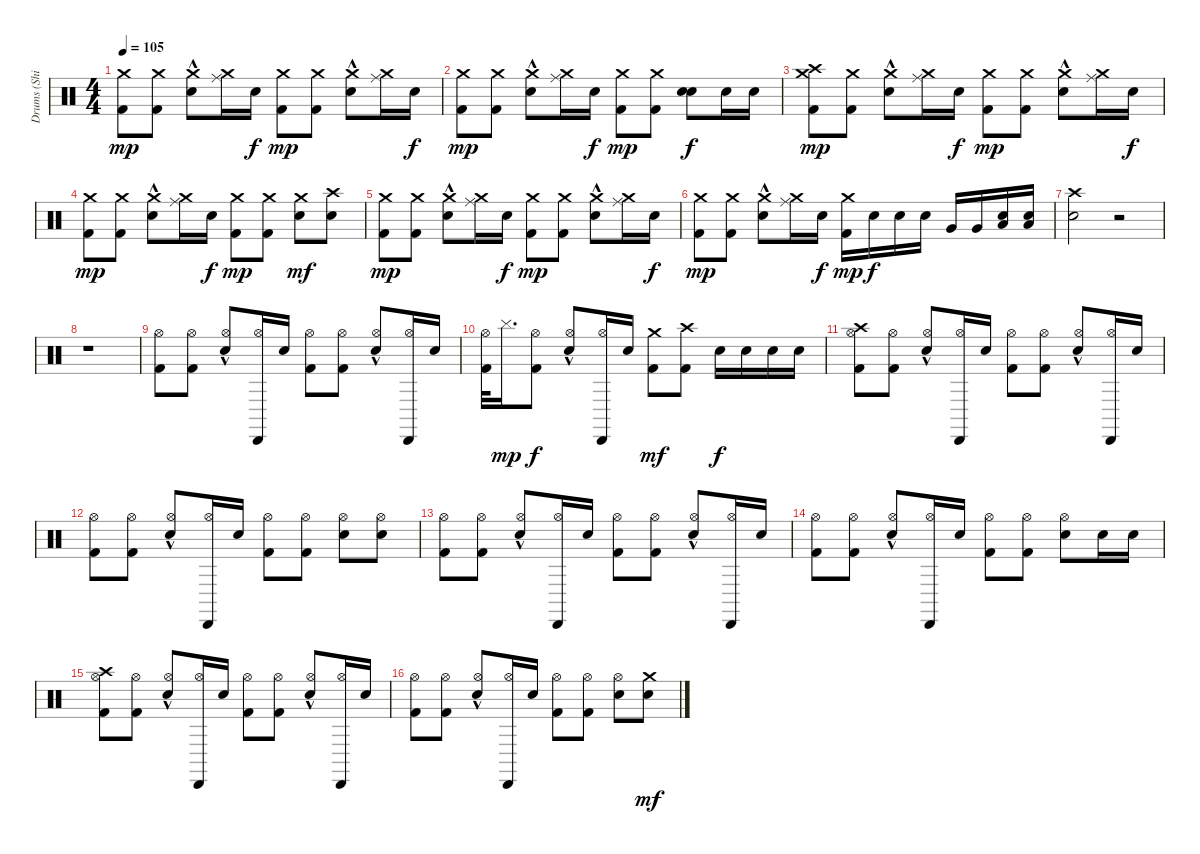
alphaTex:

\track ("Drums (Shinya)" "Drums (Shi") {instrument percussion}
\staff {score}
\articulation defaults
\ts (4 4)
\tempo 105
\clef neutral
\ks c
("Crash medium (hit)" "Kick (hit) 2").8{dy mp} ("Crash medium (hit)" "Kick (hit) 2").8 ("Crash medium (hit)" "Electric Snare (hit)"{hac}).8 ("Crash medium (hit)" "Ride (middle)").16 "Electric Snare (hit)".16{dy f} ("Crash medium (hit)" "Kick (hit) 2").8{dy mp} ("Crash medium (hit)" "Kick (hit) 2").8 ("Crash medium (hit)" "Electric Snare (hit)"{hac}).8 ("Ride (middle)" "Crash medium (hit)").16 "Electric Snare (hit)".16{dy f} |
("Kick (hit) 2" "Crash medium (hit)").8{dy mp} ("Kick (hit) 2" "Crash medium (hit)").8 ("Electric Snare (hit)"{hac} "Crash medium (hit)").8 ("Crash medium (hit)" "Ride (middle)").16 "Electric Snare (hit)".16{dy f} ("Kick (hit) 2" "Crash medium (hit)").8{dy mp} ("Kick (hit) 2" "Crash medium (hit)").8 ("Electric Snare (hit)" "Electric Snare (hit)").8{dy f} "Electric Snare (hit)".16 "Electric Snare (hit)".16 |
("Crash medium (hit)" "Crash high (hit)" "Kick (hit) 2").8{dy mp} ("Crash medium (hit)" "Kick (hit) 2").8 ("Crash medium (hit)" "Electric Snare (hit)"{hac}).8 ("Crash medium (hit)" "Ride (middle)").16 "Electric Snare (hit)".16{dy f} ("Crash medium (hit)" "Kick (hit) 2").8{dy mp} ("Crash medium (hit)" "Kick (hit) 2").8 ("Crash medium (hit)" "Electric Snare (hit)"{hac}).8 ("Ride (middle)" "Crash medium (hit)").16 "Electric Snare (hit)".16{dy f} |
("Kick (hit) 2" "Crash medium (hit)").8{dy mp} ("Kick (hit) 2" "Crash medium (hit)").8 ("Electric Snare (hit)"{hac} "Crash medium (hit)").8 ("Crash medium (hit)" "Ride (middle)").16 "Electric Snare (hit)".16{dy f} ("Kick (hit) 2" "Crash medium (hit)").8{dy mp} ("Kick (hit) 2" "Crash medium (hit)").8 ("Electric Snare (hit)" "Crash medium (hit)").8{dy mf} ("Electric Snare (hit)" "Crash high (hit)").8 |
("Crash medium (hit)" "Kick (hit) 2").8{dy mp} ("Crash medium (hit)" "Kick (hit) 2").8 ("Crash medium (hit)" "Electric Snare (hit)"{hac}).8 ("Crash medium (hit)" "Ride (middle)").16 "Electric Snare (hit)".16{dy f} ("Crash medium (hit)" "Kick (hit) 2").8{dy mp} ("Crash medium (hit)" "Kick (hit) 2").8 ("Crash medium (hit)" "Electric Snare (hit)"{hac}).8 ("Ride (middle)" "Crash medium (hit)").16 "Electric Snare (hit)".16{dy f} |
("Kick (hit) 2" "Crash medium (hit)").8{dy mp} ("Kick (hit) 2" "Crash medium (hit)").8 ("Electric Snare (hit)"{hac} "Crash medium (hit)").8 ("Crash medium (hit)" "Ride (middle)").16 "Electric Snare (hit)".16{dy f} ("Kick (hit) 2" "Crash medium (hit)").16{dy mp} "Electric Snare (hit)".16{dy f} "Electric Snare (hit)".16 "Electric Snare (hit)".16 "Very Low Tom (hit)".16 "Very Low Tom (hit)".16 ("Snare (hit) 2" "Low Floor Tom (hit)").16 ("Snare (hit) 2" "Low Floor Tom (hit)").16 |
("Crash high (hit)" "Electric Snare (hit)").2 r.2 |
r.1 |
("Kick (hit) 2" "Hi-Hat (open)").8 ("Hi-Hat (open)" "Kick (hit) 2").8 ("Electric Snare (hit)"{hac} "Hi-Hat (open)").8 ("Hi-Hat (open)" "Cabasa (hit)").16 "Electric Snare (hit)".16 ("Kick (hit) 2" "Hi-Hat (open)").8 ("Kick (hit) 2" "Hi-Hat (open)").8 ("Electric Snare (hit)"{hac} "Hi-Hat (open)").8 ("Hi-Hat (open)" "Cabasa (hit)").16 "Electric Snare (hit)".16 |
("Kick (hit) 2" "Hi-Hat (open)").32 "Cymbal (hit)".16{d dy mp} ("Hi-Hat (open)" "Kick (hit) 2").8{dy f} ("Hi-Hat (open)" "Electric Snare (hit)"{hac}).8 ("Cabasa (hit)" "Hi-Hat (open)").16 "Electric Snare (hit)".16 ("Crash medium (hit)" "Kick (hit) 2").8{dy mf} ("Crash high (hit)" "Kick (hit) 2").8 "Electric Snare (hit)".16{dy f} "Electric Snare (hit)".16 "Electric Snare (hit)".16 "Electric Snare (hit)".16 |
("Hi-Hat (open)" "Crash high (hit)" "Kick (hit) 2").8 ("Hi-Hat (open)" "Kick (hit) 2").8 ("Hi-Hat (open)" "Electric Snare (hit)"{hac}).8 ("Hi-Hat (open)" "Cabasa (hit)").16 "Electric Snare (hit)".16 ("Kick (hit) 2" "Hi-Hat (open)").8 ("Hi-Hat (open)" "Kick (hit) 2").8 ("Electric Snare (hit)"{hac} "Hi-Hat (open)").8 ("Hi-Hat (open)" "Cabasa (hit)").16 "Electric Snare (hit)".16 |
("Hi-Hat (open)" "Kick (hit) 2").8 ("Hi-Hat (open)" "Kick (hit) 2").8 ("Electric Snare (hit)"{hac} "Hi-Hat (open)").8 ("Hi-Hat (open)" "Cabasa (hit)").16 "Electric Snare (hit)".16 ("Hi-Hat (open)" "Kick (hit) 2").8 ("Hi-Hat (open)" "Kick (hit) 2").8 ("Electric Snare (hit)" "Hi-Hat (open)").8 ("Hi-Hat (open)" "Electric Snare (hit)").8 |
("Hi-Hat (open)" "Kick (hit) 2").8 ("Hi-Hat (open)" "Kick (hit) 2").8 ("Hi-Hat (open)" "Electric Snare (hit)"{hac}).8 ("Hi-Hat (open)" "Cabasa (hit)").16 "Electric Snare (hit)".16 ("Kick (hit) 2" "Hi-Hat (open)").8 ("Hi-Hat (open)" "Kick (hit) 2").8 ("Electric Snare (hit)"{hac} "Hi-Hat (open)").8 ("Hi-Hat (open)" "Cabasa (hit)").16 "Electric Snare (hit)".16 |
("Hi-Hat (open)" "Kick (hit) 2").8 ("Hi-Hat (open)" "Kick (hit) 2").8 ("Electric Snare (hit)"{hac} "Hi-Hat (open)").8 ("Hi-Hat (open)" "Cabasa (hit)").16 "Electric Snare (hit)".16 ("Hi-Hat (open)" "Kick (hit) 2").8 ("Hi-Hat (open)" "Kick (hit) 2").8 ("Electric Snare (hit)" "Hi-Hat (open)").8 "Electric Snare (hit)".16 "Electric Snare (hit)".16 |
("Hi-Hat (open)" "Crash high (hit)" "Kick (hit) 2").8 ("Hi-Hat (open)" "Kick (hit) 2").8 ("Hi-Hat (open)" "Electric Snare (hit)"{hac}).8 ("Hi-Hat (open)" "Cabasa (hit)").16 "Electric Snare (hit)".16 ("Kick (hit) 2" "Hi-Hat (open)").8 ("Hi-Hat (open)" "Kick (hit) 2").8 ("Electric Snare (hit)"{hac} "Hi-Hat (open)").8 ("Hi-Hat (open)" "Cabasa (hit)").16 "Electric Snare (hit)".16 |
("Hi-Hat (open)" "Kick (hit) 2").8 ("Hi-Hat (open)" "Kick (hit) 2").8 ("Electric Snare (hit)"{hac} "Hi-Hat (open)").8 ("Hi-Hat (open)" "Cabasa (hit)").16 "Electric Snare (hit)".16 ("Hi-Hat (open)" "Kick (hit) 2").8 ("Hi-Hat (open)" "Kick (hit) 2").8 ("Electric Snare (hit)" "Hi-Hat (open)").8 ("Crash medium (hit)" "Electric Snare (hit)").8{dy mf}
